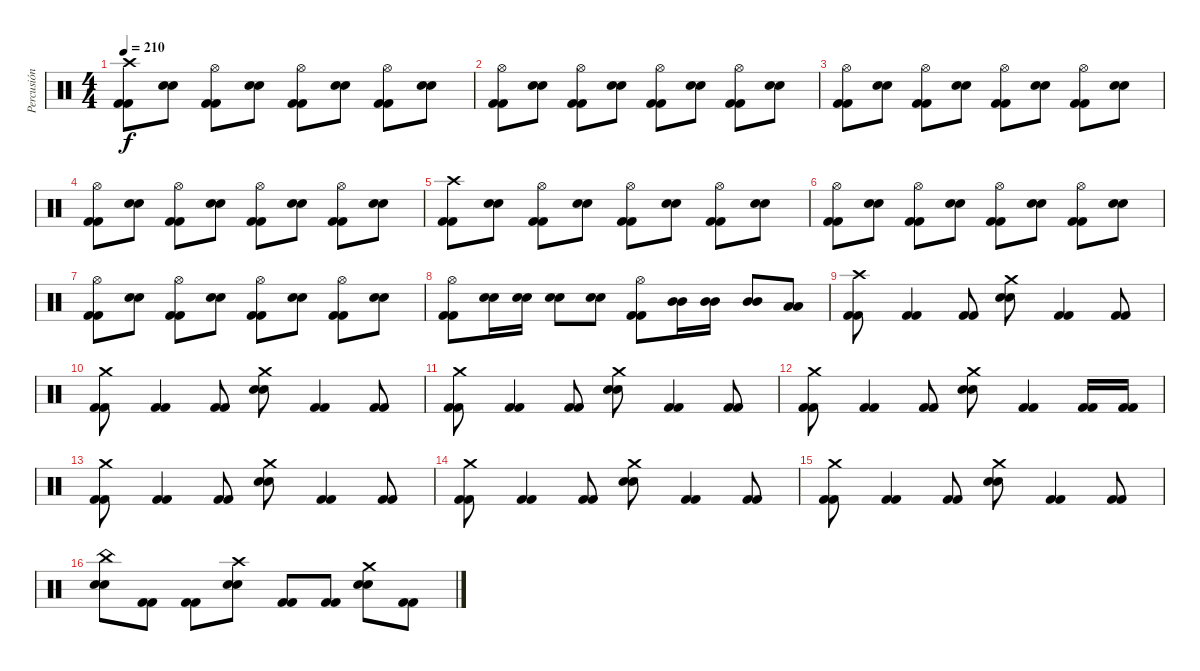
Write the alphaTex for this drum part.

\track ("Percusión" "Percusión") {instrument percussion}
\staff {score}
\articulation defaults
\ts (4 4)
\tempo 210
\clef neutral
\ks c
("Kick (hit) 2" "Kick (hit) 2" "Crash high (hit)").8{dy f} ("Electric Snare (hit)" "Electric Snare (hit)").8 ("Kick (hit) 2" "Kick (hit) 2" "Hi-Hat (open)").8 ("Electric Snare (hit)" "Electric Snare (hit)").8 ("Kick (hit) 2" "Kick (hit) 2" "Hi-Hat (open)").8 ("Electric Snare (hit)" "Electric Snare (hit)").8 ("Kick (hit) 2" "Kick (hit) 2" "Hi-Hat (open)").8 ("Electric Snare (hit)" "Electric Snare (hit)").8 |
("Kick (hit) 2" "Kick (hit) 2" "Hi-Hat (open)").8 ("Electric Snare (hit)" "Electric Snare (hit)").8 ("Kick (hit) 2" "Kick (hit) 2" "Hi-Hat (open)").8 ("Electric Snare (hit)" "Electric Snare (hit)").8 ("Kick (hit) 2" "Kick (hit) 2" "Hi-Hat (open)").8 ("Electric Snare (hit)" "Electric Snare (hit)").8 ("Kick (hit) 2" "Kick (hit) 2" "Hi-Hat (open)").8 ("Electric Snare (hit)" "Electric Snare (hit)").8 |
("Kick (hit) 2" "Kick (hit) 2" "Hi-Hat (open)").8 ("Electric Snare (hit)" "Electric Snare (hit)").8 ("Kick (hit) 2" "Kick (hit) 2" "Hi-Hat (open)").8 ("Electric Snare (hit)" "Electric Snare (hit)").8 ("Kick (hit) 2" "Kick (hit) 2" "Hi-Hat (open)").8 ("Electric Snare (hit)" "Electric Snare (hit)").8 ("Kick (hit) 2" "Kick (hit) 2" "Hi-Hat (open)").8 ("Electric Snare (hit)" "Electric Snare (hit)").8 |
("Kick (hit) 2" "Kick (hit) 2" "Hi-Hat (open)").8 ("Electric Snare (hit)" "Electric Snare (hit)").8 ("Kick (hit) 2" "Kick (hit) 2" "Hi-Hat (open)").8 ("Electric Snare (hit)" "Electric Snare (hit)").8 ("Kick (hit) 2" "Kick (hit) 2" "Hi-Hat (open)").8 ("Electric Snare (hit)" "Electric Snare (hit)").8 ("Kick (hit) 2" "Kick (hit) 2" "Hi-Hat (open)").8 ("Electric Snare (hit)" "Electric Snare (hit)").8 |
("Kick (hit) 2" "Kick (hit) 2" "Crash high (hit)").8 ("Electric Snare (hit)" "Electric Snare (hit)").8 ("Kick (hit) 2" "Kick (hit) 2" "Hi-Hat (open)").8 ("Electric Snare (hit)" "Electric Snare (hit)").8 ("Kick (hit) 2" "Kick (hit) 2" "Hi-Hat (open)").8 ("Electric Snare (hit)" "Electric Snare (hit)").8 ("Kick (hit) 2" "Kick (hit) 2" "Hi-Hat (open)").8 ("Electric Snare (hit)" "Electric Snare (hit)").8 |
("Kick (hit) 2" "Kick (hit) 2" "Hi-Hat (open)").8 ("Electric Snare (hit)" "Electric Snare (hit)").8 ("Kick (hit) 2" "Kick (hit) 2" "Hi-Hat (open)").8 ("Electric Snare (hit)" "Electric Snare (hit)").8 ("Kick (hit) 2" "Kick (hit) 2" "Hi-Hat (open)").8 ("Electric Snare (hit)" "Electric Snare (hit)").8 ("Kick (hit) 2" "Kick (hit) 2" "Hi-Hat (open)").8 ("Electric Snare (hit)" "Electric Snare (hit)").8 |
("Kick (hit) 2" "Kick (hit) 2" "Hi-Hat (open)").8 ("Electric Snare (hit)" "Electric Snare (hit)").8 ("Kick (hit) 2" "Kick (hit) 2" "Hi-Hat (open)").8 ("Electric Snare (hit)" "Electric Snare (hit)").8 ("Kick (hit) 2" "Kick (hit) 2" "Hi-Hat (open)").8 ("Electric Snare (hit)" "Electric Snare (hit)").8 ("Kick (hit) 2" "Kick (hit) 2" "Hi-Hat (open)").8 ("Electric Snare (hit)" "Electric Snare (hit)").8 |
("Kick (hit) 2" "Kick (hit) 2" "Hi-Hat (open)").8 ("Electric Snare (hit)" "Electric Snare (hit)").16 ("Electric Snare (hit)" "Electric Snare (hit)").16 ("Electric Snare (hit)" "Electric Snare (hit)").8 ("Electric Snare (hit)" "Electric Snare (hit)").8 ("Kick (hit) 2" "Kick (hit) 2" "Hi-Hat (open)").8 ("Mid Tom (hit)" "Mid Tom (hit)").16 ("Mid Tom (hit)" "Mid Tom (hit)").16 ("Mid Tom (hit)" "Mid Tom (hit)").8 ("Low Floor Tom (hit)" "Low Floor Tom (hit)").8 |
("Kick (hit) 2" "Kick (hit) 2" "Crash high (hit)").8 ("Kick (hit) 2" "Kick (hit) 2").4 ("Kick (hit) 2" "Kick (hit) 2").8 ("Electric Snare (hit)" "Electric Snare (hit)" "Crash medium (hit)").8 ("Kick (hit) 2" "Kick (hit) 2").4 ("Kick (hit) 2" "Kick (hit) 2").8 |
("Kick (hit) 2" "Kick (hit) 2" "Crash medium (hit)").8 ("Kick (hit) 2" "Kick (hit) 2").4 ("Kick (hit) 2" "Kick (hit) 2").8 ("Electric Snare (hit)" "Electric Snare (hit)" "Crash medium (hit)").8 ("Kick (hit) 2" "Kick (hit) 2").4 ("Kick (hit) 2" "Kick (hit) 2").8 |
("Kick (hit) 2" "Kick (hit) 2" "Crash medium (hit)").8 ("Kick (hit) 2" "Kick (hit) 2").4 ("Kick (hit) 2" "Kick (hit) 2").8 ("Electric Snare (hit)" "Electric Snare (hit)" "Crash medium (hit)").8 ("Kick (hit) 2" "Kick (hit) 2").4 ("Kick (hit) 2" "Kick (hit) 2").8 |
("Kick (hit) 2" "Kick (hit) 2" "Crash medium (hit)").8 ("Kick (hit) 2" "Kick (hit) 2").4 ("Kick (hit) 2" "Kick (hit) 2").8 ("Electric Snare (hit)" "Electric Snare (hit)" "Crash medium (hit)").8 ("Kick (hit) 2" "Kick (hit) 2").4 ("Kick (hit) 2" "Kick (hit) 2").16 ("Kick (hit) 2" "Kick (hit) 2").16 |
("Kick (hit) 2" "Kick (hit) 2" "Crash medium (hit)").8 ("Kick (hit) 2" "Kick (hit) 2").4 ("Kick (hit) 2" "Kick (hit) 2").8 ("Electric Snare (hit)" "Electric Snare (hit)" "Crash medium (hit)").8 ("Kick (hit) 2" "Kick (hit) 2").4 ("Kick (hit) 2" "Kick (hit) 2").8 |
("Kick (hit) 2" "Kick (hit) 2" "Crash medium (hit)").8 ("Kick (hit) 2" "Kick (hit) 2").4 ("Kick (hit) 2" "Kick (hit) 2").8 ("Electric Snare (hit)" "Electric Snare (hit)" "Crash medium (hit)").8 ("Kick (hit) 2" "Kick (hit) 2").4 ("Kick (hit) 2" "Kick (hit) 2").8 |
("Kick (hit) 2" "Kick (hit) 2" "Crash medium (hit)").8 ("Kick (hit) 2" "Kick (hit) 2").4 ("Kick (hit) 2" "Kick (hit) 2").8 ("Electric Snare (hit)" "Electric Snare (hit)" "Crash medium (hit)").8 ("Kick (hit) 2" "Kick (hit) 2").4 ("Kick (hit) 2" "Kick (hit) 2").8 |
("Electric Snare (hit)" "Electric Snare (hit)" "China (hit)").8 ("Kick (hit) 2" "Kick (hit) 2").8 ("Kick (hit) 2" "Kick (hit) 2").8 ("Electric Snare (hit)" "Electric Snare (hit)" "Crash high (hit)").8 ("Kick (hit) 2" "Kick (hit) 2").8 ("Kick (hit) 2" "Kick (hit) 2").8 ("Electric Snare (hit)" "Electric Snare (hit)" "Crash medium (hit)").8 ("Kick (hit) 2" "Kick (hit) 2").8
